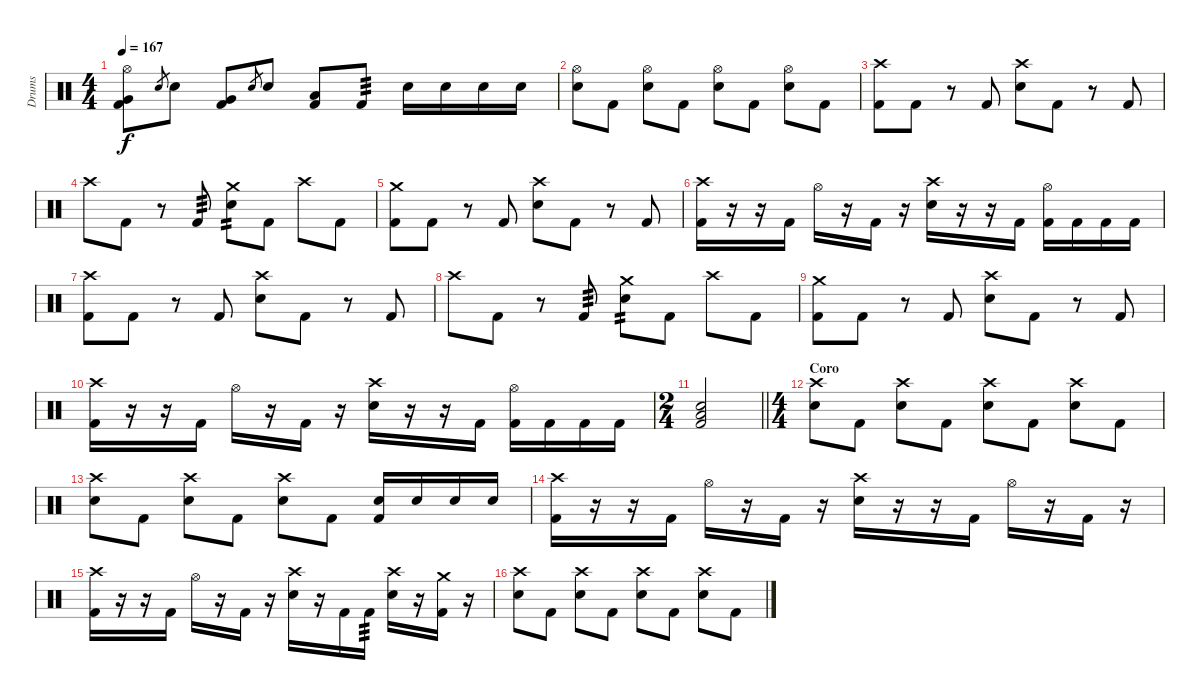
\track ("Drums" "Drums") {instrument percussion}
\staff {score}
\articulation defaults
\ts (4 4)
\tempo 167
\clef neutral
\ks c
("Hi-Hat (open)" "Very Low Tom (hit)" "Kick (hit) 2").8{dy f} "Electric Snare (hit)".8{gr} "Electric Snare (hit)".8 ("Very Low Tom (hit)" "Kick (hit) 2").8 "Electric Snare (hit)".8{gr} "Electric Snare (hit)".8 ("Low Floor Tom (hit)" "Kick (hit) 2").8 "Kick (hit) 2".8{tp 3} "Electric Snare (hit)".16 "Electric Snare (hit)".16 "Electric Snare (hit)".16 "Electric Snare (hit)".16 |
("Hi-Hat (open)" "Electric Snare (hit)").8 "Kick (hit) 2".8 ("Hi-Hat (open)" "Electric Snare (hit)").8 "Kick (hit) 2".8 ("Hi-Hat (open)" "Electric Snare (hit)").8 "Kick (hit) 2".8 ("Hi-Hat (open)" "Electric Snare (hit)").8 "Kick (hit) 2".8 |
("Crash high (hit)" "Kick (hit) 2").8 "Kick (hit) 2".8 r.8 "Kick (hit) 2".8 ("Crash high (hit)" "Electric Snare (hit)").8 "Kick (hit) 2".8 r.8 "Kick (hit) 2".8 |
"Crash high (hit)".8 "Kick (hit) 2".8 r.8 "Kick (hit) 2".8{tp 3} ("Crash medium (hit)" "Electric Snare (hit)").8{tp 2} "Kick (hit) 2".8 "Crash high (hit)".8 "Kick (hit) 2".8 |
("Crash medium (hit)" "Kick (hit) 2").8 "Kick (hit) 2".8 r.8 "Kick (hit) 2".8 ("Crash high (hit)" "Electric Snare (hit)").8 "Kick (hit) 2".8 r.8 "Kick (hit) 2".8 |
("Crash high (hit)" "Kick (hit) 2").16 r.16 r.16 "Kick (hit) 2".16 "Hi-Hat (open)".16 r.16 "Kick (hit) 2".16 r.16 ("Crash high (hit)" "Electric Snare (hit)").16 r.16 r.16 "Kick (hit) 2".16 ("Hi-Hat (open)" "Kick (hit) 2").16 "Kick (hit) 2".16 "Kick (hit) 2".16 "Kick (hit) 2".16 |
("Crash high (hit)" "Kick (hit) 2").8 "Kick (hit) 2".8 r.8 "Kick (hit) 2".8 ("Crash high (hit)" "Electric Snare (hit)").8 "Kick (hit) 2".8 r.8 "Kick (hit) 2".8 |
"Crash high (hit)".8 "Kick (hit) 2".8 r.8 "Kick (hit) 2".8{tp 3} ("Crash medium (hit)" "Electric Snare (hit)").8{tp 2} "Kick (hit) 2".8 "Crash high (hit)".8 "Kick (hit) 2".8 |
("Crash medium (hit)" "Kick (hit) 2").8 "Kick (hit) 2".8 r.8 "Kick (hit) 2".8 ("Crash high (hit)" "Electric Snare (hit)").8 "Kick (hit) 2".8 r.8 "Kick (hit) 2".8 |
("Crash high (hit)" "Kick (hit) 2").16 r.16 r.16 "Kick (hit) 2".16 "Hi-Hat (open)".16 r.16 "Kick (hit) 2".16 r.16 ("Crash high (hit)" "Electric Snare (hit)").16 r.16 r.16 "Kick (hit) 2".16 ("Hi-Hat (open)" "Kick (hit) 2").16 "Kick (hit) 2".16 "Kick (hit) 2".16 "Kick (hit) 2".16 |
\ts (2 4)
\barLineRight lightlight
("Low Floor Tom (hit)" "Electric Snare (hit)" "Kick (hit) 2").2 |
\ts (4 4)
\section ("" "Coro")
("Crash high (hit)" "Electric Snare (hit)").8 "Kick (hit) 2".8 ("Crash high (hit)" "Electric Snare (hit)").8 "Kick (hit) 2".8 ("Crash high (hit)" "Electric Snare (hit)").8 "Kick (hit) 2".8 ("Crash high (hit)" "Electric Snare (hit)").8 "Kick (hit) 2".8 |
("Crash high (hit)" "Electric Snare (hit)").8 "Kick (hit) 2".8 ("Crash high (hit)" "Electric Snare (hit)").8 "Kick (hit) 2".8 ("Crash high (hit)" "Electric Snare (hit)").8 "Kick (hit) 2".8 ("Electric Snare (hit)" "Kick (hit) 2").16 "Electric Snare (hit)".16 "Electric Snare (hit)".16 "Electric Snare (hit)".16 |
("Crash high (hit)" "Kick (hit) 2").16 r.16 r.16 "Kick (hit) 2".16 "Hi-Hat (open)".16 r.16 "Kick (hit) 2".16 r.16 ("Crash high (hit)" "Electric Snare (hit)").16 r.16 r.16 "Kick (hit) 2".16 "Hi-Hat (open)".16 r.16 "Kick (hit) 2".16 r.16 |
("Crash high (hit)" "Kick (hit) 2").16 r.16 r.16 "Kick (hit) 2".16 "Hi-Hat (open)".16 r.16 "Kick (hit) 2".16 r.16 ("Crash high (hit)" "Electric Snare (hit)").16 r.16 "Kick (hit) 2".16 "Kick (hit) 2".16{tp 3} ("Crash high (hit)" "Electric Snare (hit)").16 r.16 ("Crash medium (hit)" "Kick (hit) 2").16 r.16 |
("Crash high (hit)" "Electric Snare (hit)").8 "Kick (hit) 2".8 ("Crash high (hit)" "Electric Snare (hit)").8 "Kick (hit) 2".8 ("Crash high (hit)" "Electric Snare (hit)").8 "Kick (hit) 2".8 ("Crash high (hit)" "Electric Snare (hit)").8 "Kick (hit) 2".8
